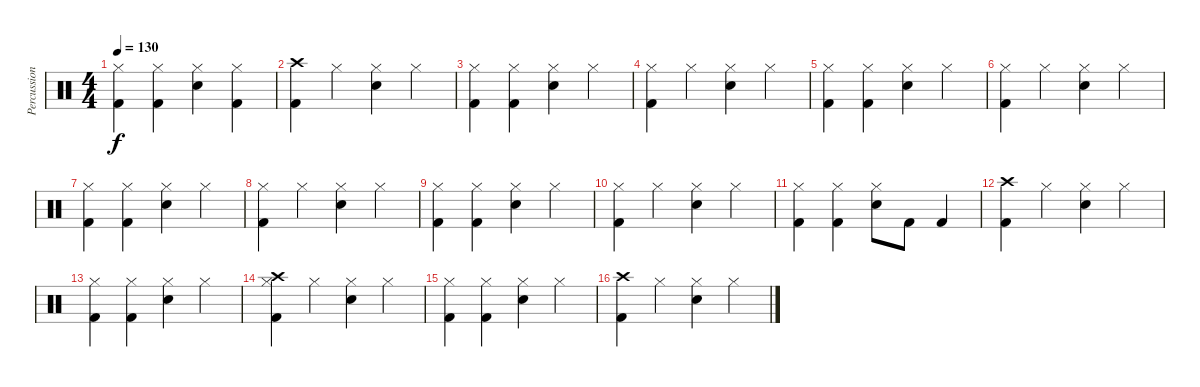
\track ("Percussion" "Percussion") {instrument percussion}
\staff {score}
\articulation defaults
\ts (4 4)
\tempo 130
\clef neutral
\ks c
("Hi-Hat (closed)" "Kick (hit) 2").4{dy f} ("Hi-Hat (closed)" "Kick (hit) 2").4 ("Hi-Hat (closed)" "Snare (hit) 2").4 ("Kick (hit) 2" "Hi-Hat (closed)").4 |
("Crash high (hit)" "Kick (hit) 2").4 "Hi-Hat (closed)".4 ("Snare (hit) 2" "Hi-Hat (closed)").4 "Hi-Hat (closed)".4 |
("Hi-Hat (closed)" "Kick (hit) 2").4 ("Hi-Hat (closed)" "Kick (hit) 2").4 ("Hi-Hat (closed)" "Snare (hit) 2").4 "Hi-Hat (closed)".4 |
("Hi-Hat (closed)" "Kick (hit) 2").4 "Hi-Hat (closed)".4 ("Snare (hit) 2" "Hi-Hat (closed)").4 "Hi-Hat (closed)".4 |
("Hi-Hat (closed)" "Kick (hit) 2").4 ("Hi-Hat (closed)" "Kick (hit) 2").4 ("Hi-Hat (closed)" "Snare (hit) 2").4 "Hi-Hat (closed)".4 |
("Hi-Hat (closed)" "Kick (hit) 2").4 "Hi-Hat (closed)".4 ("Snare (hit) 2" "Hi-Hat (closed)").4 "Hi-Hat (closed)".4 |
("Hi-Hat (closed)" "Kick (hit) 2").4 ("Hi-Hat (closed)" "Kick (hit) 2").4 ("Hi-Hat (closed)" "Snare (hit) 2").4 "Hi-Hat (closed)".4 |
("Hi-Hat (closed)" "Kick (hit) 2").4 "Hi-Hat (closed)".4 ("Snare (hit) 2" "Hi-Hat (closed)").4 "Hi-Hat (closed)".4 |
("Hi-Hat (closed)" "Kick (hit) 2").4 ("Hi-Hat (closed)" "Kick (hit) 2").4 ("Hi-Hat (closed)" "Snare (hit) 2").4 "Hi-Hat (closed)".4 |
("Hi-Hat (closed)" "Kick (hit) 2").4 "Hi-Hat (closed)".4 ("Snare (hit) 2" "Hi-Hat (closed)").4 "Hi-Hat (closed)".4 |
("Hi-Hat (closed)" "Kick (hit) 2").4 ("Hi-Hat (closed)" "Kick (hit) 2").4 ("Hi-Hat (closed)" "Snare (hit) 2").8 "Kick (hit) 2".8 "Kick (hit) 2".4 |
("Crash high (hit)" "Kick (hit) 2").4 "Hi-Hat (closed)".4 ("Snare (hit) 2" "Hi-Hat (closed)").4 "Hi-Hat (closed)".4 |
("Hi-Hat (closed)" "Kick (hit) 2").4 ("Hi-Hat (closed)" "Kick (hit) 2").4 ("Hi-Hat (closed)" "Snare (hit) 2").4 "Hi-Hat (closed)".4 |
("Hi-Hat (closed)" "Kick (hit) 2" "Crash high (hit)").4 "Hi-Hat (closed)".4 ("Snare (hit) 2" "Hi-Hat (closed)").4 "Hi-Hat (closed)".4 |
("Hi-Hat (closed)" "Kick (hit) 2").4 ("Hi-Hat (closed)" "Kick (hit) 2").4 ("Hi-Hat (closed)" "Snare (hit) 2").4 "Hi-Hat (closed)".4 |
("Crash high (hit)" "Kick (hit) 2").4 "Hi-Hat (closed)".4 ("Snare (hit) 2" "Hi-Hat (closed)").4 "Hi-Hat (closed)".4
